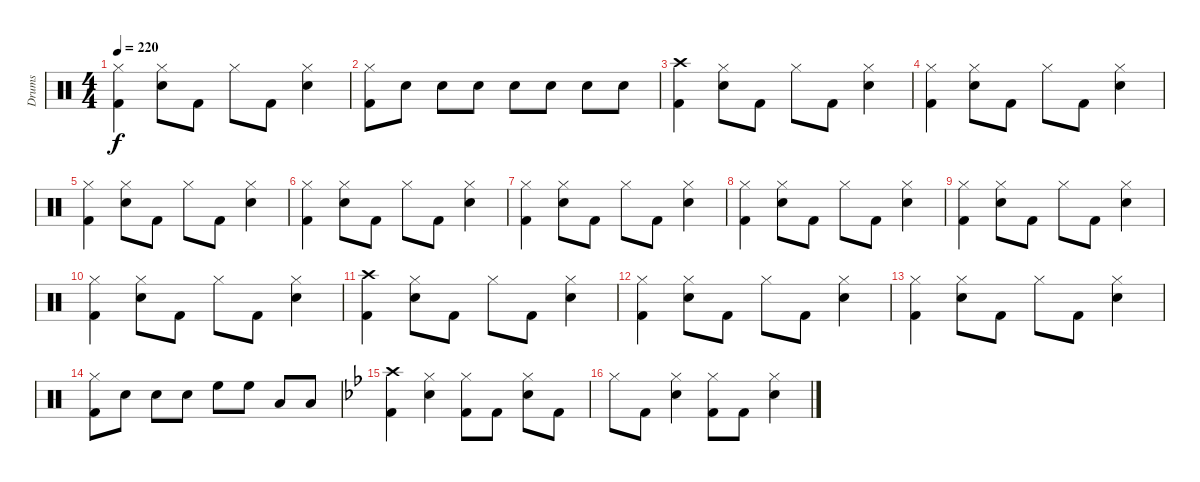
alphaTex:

\track ("Drums" "Drums") {instrument percussion}
\staff {score}
\articulation defaults
\ts (4 4)
\tempo 220
\clef neutral
\ks aminor
("Kick (hit) 2" "Hi-Hat (closed)").4{dy f} ("Snare (hit) 2" "Hi-Hat (closed)").8 "Kick (hit) 2".8 "Hi-Hat (closed)".8 "Kick (hit) 2".8 ("Snare (hit) 2" "Hi-Hat (closed)").4 |
("Kick (hit) 2" "Hi-Hat (closed)").8 "Snare (hit) 2".8 "Snare (hit) 2".8 "Snare (hit) 2".8 "Snare (hit) 2".8 "Snare (hit) 2".8 "Snare (hit) 2".8 "Snare (hit) 2".8 |
("Kick (hit) 2" "Crash high (hit)").4 ("Snare (hit) 2" "Hi-Hat (closed)").8 "Kick (hit) 2".8 "Hi-Hat (closed)".8 "Kick (hit) 2".8 ("Snare (hit) 2" "Hi-Hat (closed)").4 |
("Kick (hit) 2" "Hi-Hat (closed)").4 ("Snare (hit) 2" "Hi-Hat (closed)").8 "Kick (hit) 2".8 "Hi-Hat (closed)".8 "Kick (hit) 2".8 ("Snare (hit) 2" "Hi-Hat (closed)").4 |
("Kick (hit) 2" "Hi-Hat (closed)").4 ("Snare (hit) 2" "Hi-Hat (closed)").8 "Kick (hit) 2".8 "Hi-Hat (closed)".8 "Kick (hit) 2".8 ("Snare (hit) 2" "Hi-Hat (closed)").4 |
("Kick (hit) 2" "Hi-Hat (closed)").4 ("Snare (hit) 2" "Hi-Hat (closed)").8 "Kick (hit) 2".8 "Hi-Hat (closed)".8 "Kick (hit) 2".8 ("Snare (hit) 2" "Hi-Hat (closed)").4 |
("Kick (hit) 2" "Hi-Hat (closed)").4 ("Snare (hit) 2" "Hi-Hat (closed)").8 "Kick (hit) 2".8 "Hi-Hat (closed)".8 "Kick (hit) 2".8 ("Snare (hit) 2" "Hi-Hat (closed)").4 |
("Kick (hit) 2" "Hi-Hat (closed)").4 ("Snare (hit) 2" "Hi-Hat (closed)").8 "Kick (hit) 2".8 "Hi-Hat (closed)".8 "Kick (hit) 2".8 ("Snare (hit) 2" "Hi-Hat (closed)").4 |
("Kick (hit) 2" "Hi-Hat (closed)").4 ("Snare (hit) 2" "Hi-Hat (closed)").8 "Kick (hit) 2".8 "Hi-Hat (closed)".8 "Kick (hit) 2".8 ("Snare (hit) 2" "Hi-Hat (closed)").4 |
("Kick (hit) 2" "Hi-Hat (closed)").4 ("Snare (hit) 2" "Hi-Hat (closed)").8 "Kick (hit) 2".8 "Hi-Hat (closed)".8 "Kick (hit) 2".8 ("Snare (hit) 2" "Hi-Hat (closed)").4 |
("Kick (hit) 2" "Crash high (hit)").4 ("Snare (hit) 2" "Hi-Hat (closed)").8 "Kick (hit) 2".8 "Hi-Hat (closed)".8 "Kick (hit) 2".8 ("Snare (hit) 2" "Hi-Hat (closed)").4 |
("Kick (hit) 2" "Hi-Hat (closed)").4 ("Snare (hit) 2" "Hi-Hat (closed)").8 "Kick (hit) 2".8 "Hi-Hat (closed)".8 "Kick (hit) 2".8 ("Snare (hit) 2" "Hi-Hat (closed)").4 |
("Kick (hit) 2" "Hi-Hat (closed)").4 ("Snare (hit) 2" "Hi-Hat (closed)").8 "Kick (hit) 2".8 "Hi-Hat (closed)".8 "Kick (hit) 2".8 ("Snare (hit) 2" "Hi-Hat (closed)").4 |
("Kick (hit) 2" "Hi-Hat (closed)").8 "Snare (hit) 2".8 "Snare (hit) 2".8 "Snare (hit) 2".8 "High Floor Tom (hit)".8 "High Floor Tom (hit)".8 "Low Tom (hit)".8 "Low Tom (hit)".8 |
\ks gminor
("Kick (hit) 2" "Crash high (hit)").4 ("Snare (hit) 2" "Hi-Hat (closed)").4 ("Kick (hit) 2" "Hi-Hat (closed)").8 "Kick (hit) 2".8 ("Snare (hit) 2" "Hi-Hat (closed)").8 "Kick (hit) 2".8 |
"Hi-Hat (closed)".8 "Kick (hit) 2".8 ("Snare (hit) 2" "Hi-Hat (closed)").4 ("Kick (hit) 2" "Hi-Hat (closed)").8 "Kick (hit) 2".8 ("Snare (hit) 2" "Hi-Hat (closed)").4
